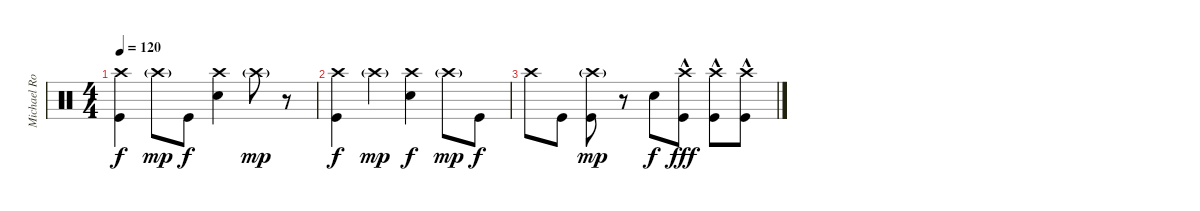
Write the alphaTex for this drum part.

\track ("Michael Roponus " "Michael Ro") {instrument percussion}
\staff {score}
\articulation defaults
\ts (4 4)
\tempo 120
\clef neutral
\ks c
("Crash high (hit)" "Kick (hit)").4{dy f} "Crash high (hit)"{g}.8{dy mp} "Kick (hit)".8{dy f} ("Crash high (hit)" "Snare (hit) 2").4 "Crash high (hit)"{g}.8{dy mp} r.8 |
("Crash high (hit)" "Kick (hit)").4{dy f} "Crash high (hit)"{g}.4{dy mp} ("Crash high (hit)" "Snare (hit) 2").4{dy f} "Crash high (hit)"{g}.8{dy mp} "Kick (hit)".8{dy f} |
"Crash high (hit)".8 "Kick (hit)".8 ("Crash high (hit)"{g} "Kick (hit)").8{dy mp} r.8 "Snare (hit) 2".8{dy f} ("Crash high (hit)"{hac} "Kick (hit)"{hac}).8{dy fff} ("Crash high (hit)"{hac} "Kick (hit)"{hac}).8 ("Crash high (hit)"{hac} "Kick (hit)"{hac}).8
